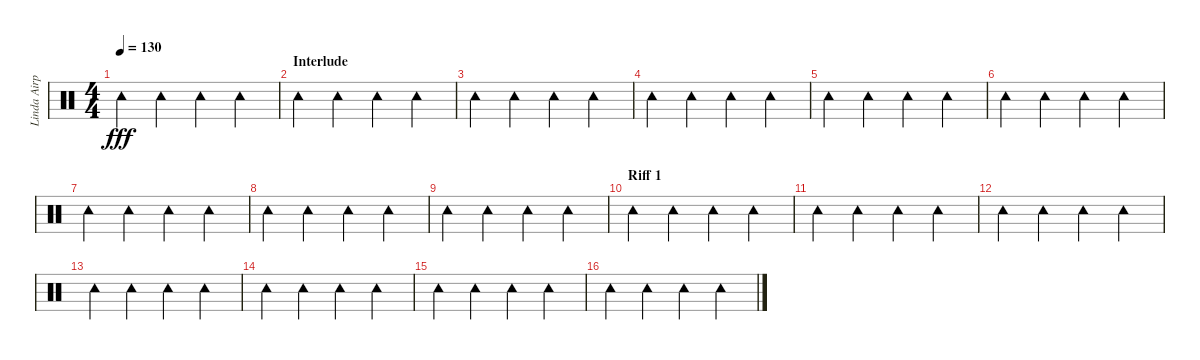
\track ("Linda Airplane" "Linda Airp") {instrument percussion}
\staff {score}
\articulation defaults
\ts (4 4)
\tempo 130
\clef neutral
\ks c "Tambourine (hit)".4{dy fff} "Tambourine (hit)".4 "Tambourine (hit)".4 "Tambourine (hit)".4
|
\section ("" "Interlude")
"Tambourine (hit)".4 "Tambourine (hit)".4 "Tambourine (hit)".4 "Tambourine (hit)".4 |
"Tambourine (hit)".4 "Tambourine (hit)".4 "Tambourine (hit)".4 "Tambourine (hit)".4 |
"Tambourine (hit)".4 "Tambourine (hit)".4 "Tambourine (hit)".4 "Tambourine (hit)".4 |
"Tambourine (hit)".4 "Tambourine (hit)".4 "Tambourine (hit)".4 "Tambourine (hit)".4 |
"Tambourine (hit)".4 "Tambourine (hit)".4 "Tambourine (hit)".4 "Tambourine (hit)".4 |
"Tambourine (hit)".4 "Tambourine (hit)".4 "Tambourine (hit)".4 "Tambourine (hit)".4 |
"Tambourine (hit)".4 "Tambourine (hit)".4 "Tambourine (hit)".4 "Tambourine (hit)".4 |
"Tambourine (hit)".4 "Tambourine (hit)".4 "Tambourine (hit)".4 "Tambourine (hit)".4 |
\section ("" "Riff 1")
"Tambourine (hit)".4 "Tambourine (hit)".4 "Tambourine (hit)".4 "Tambourine (hit)".4 |
"Tambourine (hit)".4 "Tambourine (hit)".4 "Tambourine (hit)".4 "Tambourine (hit)".4 |
"Tambourine (hit)".4 "Tambourine (hit)".4 "Tambourine (hit)".4 "Tambourine (hit)".4 |
"Tambourine (hit)".4 "Tambourine (hit)".4 "Tambourine (hit)".4 "Tambourine (hit)".4 |
"Tambourine (hit)".4 "Tambourine (hit)".4 "Tambourine (hit)".4 "Tambourine (hit)".4 |
"Tambourine (hit)".4 "Tambourine (hit)".4 "Tambourine (hit)".4 "Tambourine (hit)".4 |
"Tambourine (hit)".4 "Tambourine (hit)".4 "Tambourine (hit)".4 "Tambourine (hit)".4
